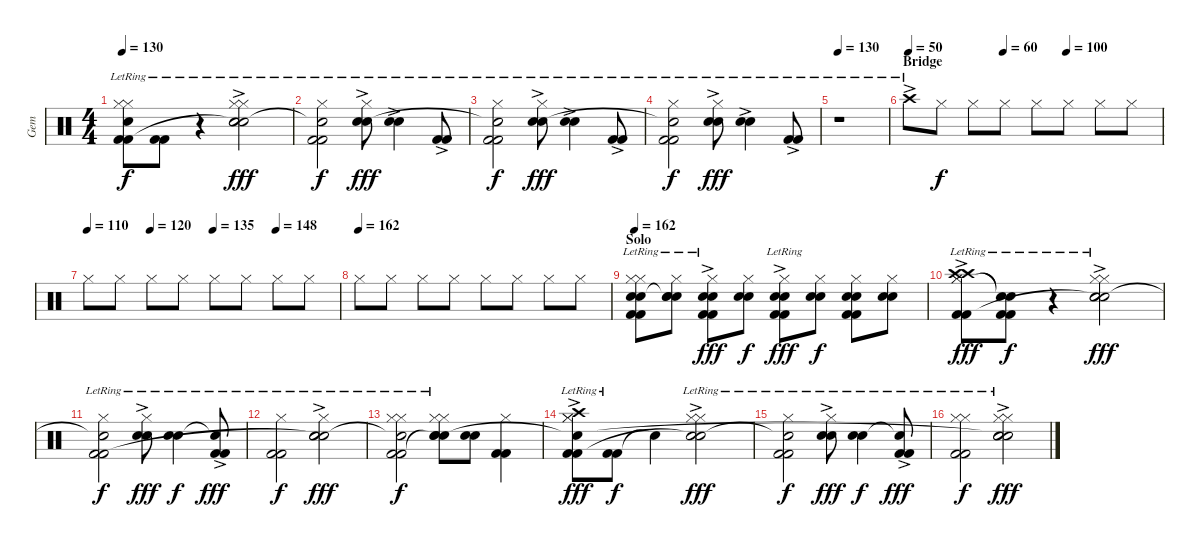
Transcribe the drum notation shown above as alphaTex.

\track ("Gem" "Gem") {instrument percussion}
\staff {score}
\articulation defaults
\ts (4 4)
\tempo 130
\clef neutral
\ks c
("Hi-Hat (closed)"{lr} "Hi-Hat (closed)"{lr} "Kick (hit) 2" "Snare (hit)"{t} "Kick (hit) 2"{lr}).8{dy f} ("Kick (hit) 2" "Kick (hit) 2"{lr}).8 r.4 ("Hi-Hat (closed)"{lr} "Hi-Hat (closed)"{lr} "Snare (hit) 2" "Snare (hit) 2"{ac lr} "Snare (hit)"{t}).2{dy fff} |
("Hi-Hat (closed)"{lr} "Kick (hit) 2" "Snare (hit)"{t} "Kick (hit) 2"{lr}).2{dy f} ("Hi-Hat (closed)"{lr} "Snare (hit) 2" "Snare (hit) 2"{ac lr}).8{dy fff} ("Snare (hit) 2" "Snare (hit) 2"{ac lr}).4 ("Kick (hit) 2" "Kick (hit) 2"{ac lr}).8 |
("Hi-Hat (closed)"{lr} "Kick (hit) 2" "Snare (hit)"{t} "Kick (hit) 2"{lr}).2{dy f} ("Hi-Hat (closed)"{lr} "Snare (hit) 2" "Snare (hit) 2"{ac lr}).8{dy fff} ("Snare (hit) 2" "Snare (hit) 2"{ac lr}).4 ("Kick (hit) 2" "Kick (hit) 2"{ac lr}).8 |
("Hi-Hat (closed)"{lr} "Kick (hit) 2" "Snare (hit)"{t} "Kick (hit) 2"{lr}).2{dy f} ("Hi-Hat (closed)"{lr} "Snare (hit) 2" "Snare (hit) 2"{ac lr}).8{dy fff} ("Snare (hit) 2" "Snare (hit) 2"{ac lr}).4 ("Kick (hit) 2" "Kick (hit) 2"{ac lr}).8 |
\tempo 130
r.1 |
\section ("" "Bridge")
\tempo 50
\tempo (60 0.375)
\tempo (100 0.625)
"Crash high (hit)"{ac lr}.8 "Hi-Hat (closed)".8{dy f} "Hi-Hat (closed)".8 "Hi-Hat (closed)".8 "Hi-Hat (closed)".8 "Hi-Hat (closed)".8 "Hi-Hat (closed)".8 "Hi-Hat (closed)".8 |
\tempo 110
\tempo (120 0.25)
\tempo (135 0.5)
\tempo (148 0.75)
"Hi-Hat (closed)".8 "Hi-Hat (closed)".8 "Hi-Hat (closed)".8 "Hi-Hat (closed)".8 "Hi-Hat (closed)".8 "Hi-Hat (closed)".8 "Hi-Hat (closed)".8 "Hi-Hat (closed)".8 |
\tempo (162)
"Hi-Hat (closed)".8 "Hi-Hat (closed)".8 "Hi-Hat (closed)".8 "Hi-Hat (closed)".8 "Hi-Hat (closed)".8 "Hi-Hat (closed)".8 "Hi-Hat (closed)".8 "Hi-Hat (closed)".8 |
\section ("" "Solo")
\tempo 162
("Hi-Hat (closed)"{lr} "Hi-Hat (closed)"{lr} "Electric Snare (hit)"{lr} "Snare (hit) 2" "Kick (hit) 2" "Kick (hit) 2"{lr}).8 ("Hi-Hat (closed)"{lr} "Electric Snare (hit)" "Snare (hit) 2" "Snare (hit)"{t}).8 ("Hi-Hat (closed)" "Electric Snare (hit)"{lr} "Snare (hit) 2"{ac} "Kick (hit) 2" "Kick (hit) 2").8{dy fff} ("Hi-Hat (closed)" "Electric Snare (hit)" "Snare (hit) 2").8{dy f} ("Hi-Hat (closed)" "Electric Snare (hit)"{lr} "Snare (hit) 2"{ac lr} "Kick (hit) 2" "Kick (hit) 2").8{dy fff} ("Hi-Hat (closed)" "Electric Snare (hit)" "Snare (hit) 2").8{dy f} ("Hi-Hat (closed)" "Electric Snare (hit)" "Snare (hit) 2" "Kick (hit) 2" "Kick (hit) 2").8 ("Hi-Hat (closed)" "Electric Snare (hit)" "Snare (hit) 2").8 |
("Hi-Hat (closed)"{lr} "Hi-Hat (closed)"{lr} "Crash high (hit)"{ac lr} "Crash high (hit)"{ac lr} "Kick (hit) 2" "Kick (hit) 2"{lr}).8{dy fff} ("Snare (hit)"{t} "Snare (hit)"{t} "Kick (hit) 2" "Kick (hit) 2"{lr}).8{dy f} r.4 ("Hi-Hat (closed)"{lr} "Hi-Hat (closed)"{lr} "Snare (hit) 2" "Snare (hit) 2"{ac lr} "Snare (hit)"{t}).2{dy fff} |
("Hi-Hat (closed)"{lr} "Kick (hit) 2" "Snare (hit)"{t} "Kick (hit) 2"{lr}).2{dy f} ("Hi-Hat (closed)"{lr} "Snare (hit) 2" "Snare (hit) 2"{ac lr}).8{dy fff} ("Snare (hit) 2" "Snare (hit) 2"{lr}).4{dy f} ("Kick (hit) 2" "Snare (hit)"{t} "Kick (hit) 2"{ac lr}).8{dy fff} |
("Hi-Hat (closed)"{lr} "Kick (hit) 2"{lr} "Kick (hit) 2"{lr}).2{dy f} ("Hi-Hat (closed)"{lr} "Snare (hit) 2"{lr} "Snare (hit) 2"{ac lr} "Snare (hit)"{t}).2{dy fff} |
("Hi-Hat (closed)"{lr} "Hi-Hat (closed)"{lr} "Kick (hit) 2" "Snare (hit)"{t} "Kick (hit) 2"{lr}).2{dy f} ("Hi-Hat (closed)"{lr} "Hi-Hat (closed)"{lr} "Snare (hit) 2" "Snare (hit) 2"{lr} "Snare (hit)"{t}).8 ("Snare (hit) 2" "Snare (hit) 2").8 ("Hi-Hat (closed)" "Kick (hit) 2" "Kick (hit) 2").4 |
("Hi-Hat (closed)"{lr} "Hi-Hat (closed)"{lr} "Crash high (hit)"{ac lr} "Kick (hit) 2" "Snare (hit)"{t} "Kick (hit) 2"{lr}).8{dy fff} ("Kick (hit) 2" "Kick (hit) 2"{lr}).8{dy f} "Snare (hit)"{t}.4 ("Hi-Hat (closed)"{lr} "Hi-Hat (closed)"{lr} "Snare (hit) 2"{ac lr} "Snare (hit)"{t}).2{dy fff} |
("Hi-Hat (closed)"{lr} "Kick (hit) 2" "Snare (hit)"{t} "Kick (hit) 2"{lr}).2{dy f} ("Hi-Hat (closed)"{lr} "Snare (hit) 2" "Snare (hit) 2"{ac lr}).8{dy fff} ("Snare (hit) 2" "Snare (hit) 2"{lr}).4{dy f} ("Kick (hit) 2" "Snare (hit)"{t} "Kick (hit) 2"{ac lr}).8{dy fff} |
("Hi-Hat (closed)"{lr} "Hi-Hat (closed)"{lr} "Kick (hit) 2" "Kick (hit) 2"{lr}).2{dy f} ("Hi-Hat (closed)"{lr} "Hi-Hat (closed)"{lr} "Snare (hit) 2" "Snare (hit) 2"{ac lr} "Snare (hit)"{t}).2{dy fff}
